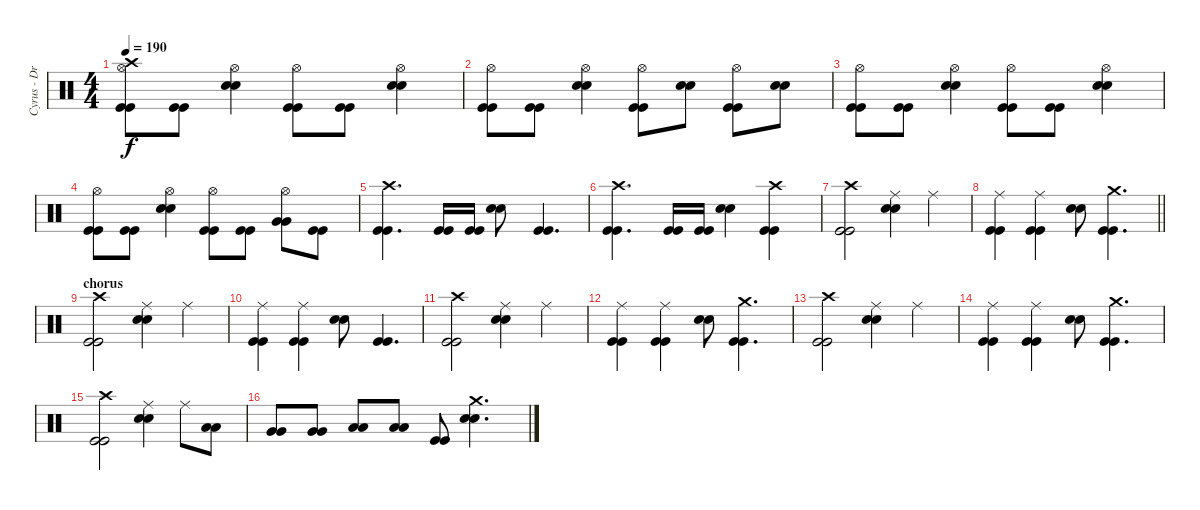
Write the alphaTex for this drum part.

\track ("Cyrus - Drums" "Cyrus - Dr") {instrument percussion}
\staff {score}
\articulation defaults
\ts (4 4)
\tempo 190
\clef neutral
\ks c
("Kick (hit)" "Kick (hit)" "Hi-Hat (open)" "Crash high (hit)").8{dy f} ("Kick (hit)" "Kick (hit)").8 ("Snare (hit) 2" "Snare (hit) 2" "Hi-Hat (open)").4 ("Kick (hit)" "Kick (hit)" "Hi-Hat (open)").8 ("Kick (hit)" "Kick (hit)").8 ("Snare (hit) 2" "Snare (hit) 2" "Hi-Hat (open)").4 |
("Kick (hit)" "Kick (hit)" "Hi-Hat (open)").8 ("Kick (hit)" "Kick (hit)").8 ("Snare (hit) 2" "Snare (hit) 2" "Hi-Hat (open)").4 ("Kick (hit)" "Kick (hit)" "Hi-Hat (open)").8 ("Snare (hit) 2" "Snare (hit) 2").8 ("Kick (hit)" "Kick (hit)" "Hi-Hat (open)").8 ("Snare (hit) 2" "Snare (hit) 2").8 |
("Kick (hit)" "Kick (hit)" "Hi-Hat (open)").8 ("Kick (hit)" "Kick (hit)").8 ("Snare (hit) 2" "Snare (hit) 2" "Hi-Hat (open)").4 ("Kick (hit)" "Kick (hit)" "Hi-Hat (open)").8 ("Kick (hit)" "Kick (hit)").8 ("Snare (hit) 2" "Snare (hit) 2" "Hi-Hat (open)").4 |
("Kick (hit)" "Kick (hit)" "Hi-Hat (open)").8 ("Kick (hit)" "Kick (hit)").8 ("Snare (hit) 2" "Snare (hit) 2" "Hi-Hat (open)").4 ("Kick (hit)" "Kick (hit)" "Hi-Hat (open)").8 ("Kick (hit)" "Kick (hit)").8 ("Very Low Tom (hit)" "Very Low Tom (hit)" "Hi-Hat (open)").8 ("Kick (hit)" "Kick (hit)").8 |
("Kick (hit)" "Kick (hit)" "Crash high (hit)").4{d} ("Kick (hit)" "Kick (hit)").16 ("Kick (hit)" "Kick (hit)").16 ("Snare (hit) 2" "Snare (hit) 2").8 ("Kick (hit)" "Kick (hit)").4{d} |
("Kick (hit)" "Kick (hit)" "Crash high (hit)").4{d} ("Kick (hit)" "Kick (hit)").16 ("Kick (hit)" "Kick (hit)").16 ("Snare (hit) 2" "Snare (hit) 2").4 ("Kick (hit)" "Kick (hit)" "Crash high (hit)").4 |
("Kick (hit)" "Kick (hit)" "Crash high (hit)").2 ("Snare (hit) 2" "Snare (hit) 2" "Ride (middle)").4 "Ride (middle)".4 |
\barLineRight lightlight
("Kick (hit)" "Kick (hit)" "Ride (middle)").4 ("Kick (hit)" "Kick (hit)" "Ride (middle)").4 ("Snare (hit) 2" "Snare (hit) 2").8 ("Kick (hit)" "Kick (hit)" "Crash medium (hit)").4{d} |
\section ("" "chorus")
("Kick (hit)" "Kick (hit)" "Crash high (hit)").2 ("Snare (hit) 2" "Snare (hit) 2" "Ride (middle)").4 "Ride (middle)".4 |
("Kick (hit)" "Kick (hit)" "Ride (middle)").4 ("Kick (hit)" "Kick (hit)" "Ride (middle)").4 ("Snare (hit) 2" "Snare (hit) 2").8 ("Kick (hit)" "Kick (hit)").4{d} |
("Kick (hit)" "Kick (hit)" "Crash high (hit)").2 ("Snare (hit) 2" "Snare (hit) 2" "Ride (middle)").4 "Ride (middle)".4 |
("Kick (hit)" "Kick (hit)" "Ride (middle)").4 ("Kick (hit)" "Kick (hit)" "Ride (middle)").4 ("Snare (hit) 2" "Snare (hit) 2").8 ("Kick (hit)" "Kick (hit)" "Crash medium (hit)").4{d} |
("Kick (hit)" "Kick (hit)" "Crash high (hit)").2 ("Snare (hit) 2" "Snare (hit) 2" "Ride (middle)").4 "Ride (middle)".4 |
("Kick (hit)" "Kick (hit)" "Ride (middle)").4 ("Kick (hit)" "Kick (hit)" "Ride (middle)").4 ("Snare (hit) 2" "Snare (hit) 2").8 ("Kick (hit)" "Kick (hit)" "Crash medium (hit)").4{d} |
("Kick (hit)" "Kick (hit)" "Crash high (hit)").2 ("Snare (hit) 2" "Snare (hit) 2" "Ride (middle)").4 "Ride (middle)".8 ("Low Tom (hit)" "Low Tom (hit)").8 |
("Very Low Tom (hit)" "Very Low Tom (hit)").8 ("Very Low Tom (hit)" "Very Low Tom (hit)").8 ("Low Floor Tom (hit)" "Low Floor Tom (hit)").8 ("Low Floor Tom (hit)" "Low Floor Tom (hit)").8 ("Kick (hit)" "Kick (hit)").8 ("Snare (hit) 2" "Snare (hit) 2" "Crash medium (hit)").4{d}
